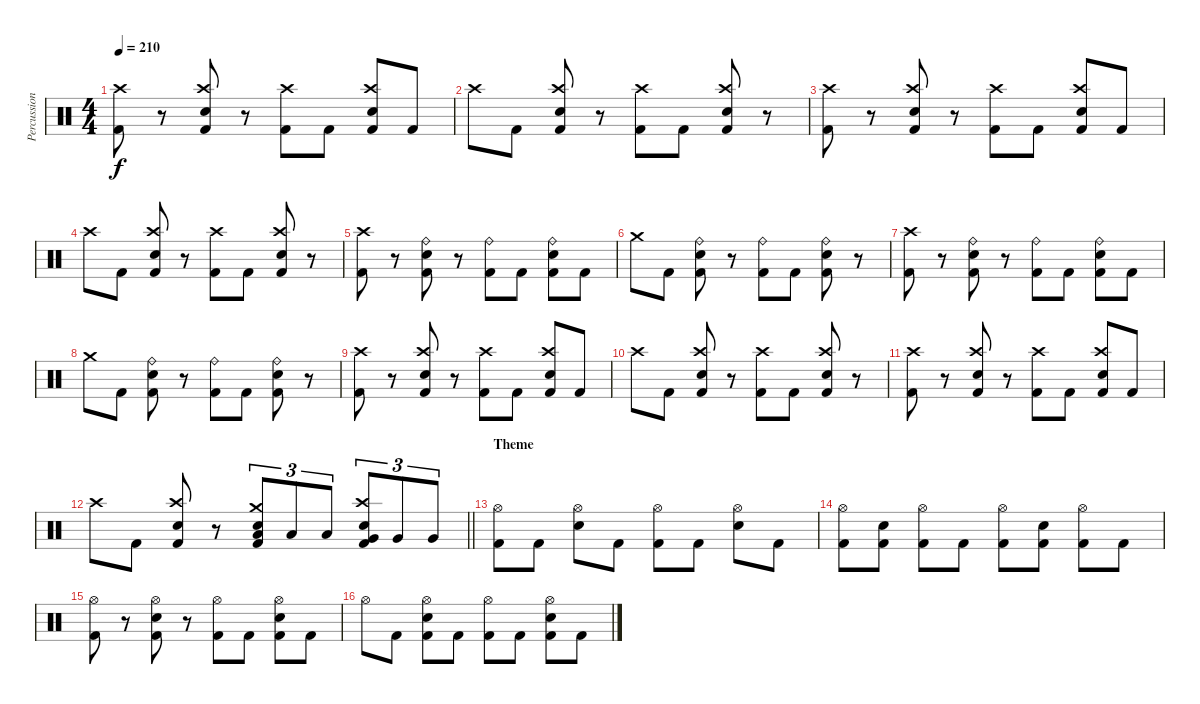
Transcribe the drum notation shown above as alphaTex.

\track ("Percussion" "Percussion") {instrument percussion}
\staff {score}
\articulation defaults
\ts (4 4)
\tempo 210
\clef neutral
\ks c
("Kick (hit) 2" "Crash high (hit)").8{dy f} r.8 ("Kick (hit) 2" "Electric Snare (hit)" "Crash high (hit)").8 r.8 ("Kick (hit) 2" "Crash high (hit)").8 "Kick (hit) 2".8 ("Kick (hit) 2" "Electric Snare (hit)" "Crash high (hit)").8 "Kick (hit) 2".8 |
"Crash high (hit)".8 "Kick (hit) 2".8 ("Kick (hit) 2" "Electric Snare (hit)" "Crash high (hit)").8 r.8 ("Kick (hit) 2" "Crash high (hit)").8 "Kick (hit) 2".8 ("Kick (hit) 2" "Electric Snare (hit)" "Crash high (hit)").8 r.8 |
("Kick (hit) 2" "Crash high (hit)").8 r.8 ("Kick (hit) 2" "Electric Snare (hit)" "Crash high (hit)").8 r.8 ("Kick (hit) 2" "Crash high (hit)").8 "Kick (hit) 2".8 ("Kick (hit) 2" "Electric Snare (hit)" "Crash high (hit)").8 "Kick (hit) 2".8 |
"Crash high (hit)".8 "Kick (hit) 2".8 ("Kick (hit) 2" "Electric Snare (hit)" "Crash high (hit)").8 r.8 ("Kick (hit) 2" "Crash high (hit)").8 "Kick (hit) 2".8 ("Kick (hit) 2" "Electric Snare (hit)" "Crash high (hit)").8 r.8 |
("Kick (hit) 2" "Crash high (hit)").8 r.8 ("Kick (hit) 2" "Electric Snare (hit)" "Ride (bell)").8 r.8 ("Kick (hit) 2" "Ride (bell)").8 "Kick (hit) 2".8 ("Kick (hit) 2" "Electric Snare (hit)" "Ride (bell)").8 "Kick (hit) 2".8 |
"Crash medium (hit)".8 "Kick (hit) 2".8 ("Kick (hit) 2" "Electric Snare (hit)" "Ride (bell)").8 r.8 ("Kick (hit) 2" "Ride (bell)").8 "Kick (hit) 2".8 ("Kick (hit) 2" "Electric Snare (hit)" "Ride (bell)").8 r.8 |
("Kick (hit) 2" "Crash high (hit)").8 r.8 ("Kick (hit) 2" "Electric Snare (hit)" "Ride (bell)").8 r.8 ("Kick (hit) 2" "Ride (bell)").8 "Kick (hit) 2".8 ("Kick (hit) 2" "Electric Snare (hit)" "Ride (bell)").8 "Kick (hit) 2".8 |
"Crash medium (hit)".8 "Kick (hit) 2".8 ("Kick (hit) 2" "Electric Snare (hit)" "Ride (bell)").8 r.8 ("Kick (hit) 2" "Ride (bell)").8 "Kick (hit) 2".8 ("Kick (hit) 2" "Electric Snare (hit)" "Ride (bell)").8 r.8 |
("Kick (hit) 2" "Crash high (hit)").8 r.8 ("Kick (hit) 2" "Electric Snare (hit)" "Crash high (hit)").8 r.8 ("Kick (hit) 2" "Crash high (hit)").8 "Kick (hit) 2".8 ("Kick (hit) 2" "Electric Snare (hit)" "Crash high (hit)").8 "Kick (hit) 2".8 |
"Crash high (hit)".8 "Kick (hit) 2".8 ("Kick (hit) 2" "Electric Snare (hit)" "Crash high (hit)").8 r.8 ("Kick (hit) 2" "Crash high (hit)").8 "Kick (hit) 2".8 ("Kick (hit) 2" "Electric Snare (hit)" "Crash high (hit)").8 r.8 |
("Kick (hit) 2" "Crash high (hit)").8 r.8 ("Kick (hit) 2" "Electric Snare (hit)" "Crash high (hit)").8 r.8 ("Kick (hit) 2" "Crash high (hit)").8 "Kick (hit) 2".8 ("Kick (hit) 2" "Electric Snare (hit)" "Crash high (hit)").8 "Kick (hit) 2".8 |
\barLineRight lightlight "Crash high (hit)".8 "Kick (hit) 2".8
("Kick (hit) 2" "Electric Snare (hit)" "Crash high (hit)").8 r.8 ("Kick (hit) 2" "Low Tom (hit)" "Crash medium (hit)" "Electric Snare (hit)").8{tu (3 2)} "Low Tom (hit)".8{tu (3 2)} "Low Tom (hit)".8{tu (3 2)} ("Kick (hit) 2" "Very Low Tom (hit)" "Crash high (hit)" "Electric Snare (hit)").8{tu (3 2)} "Very Low Tom (hit)".8{tu (3 2)} "Very Low Tom (hit)".8{tu (3 2)} |
\section ("" "Theme")
("Kick (hit) 2" "Hi-Hat (open)").8 "Kick (hit) 2".8 ("Electric Snare (hit)" "Hi-Hat (open)").8 "Kick (hit) 2".8 ("Kick (hit) 2" "Hi-Hat (open)").8 "Kick (hit) 2".8 ("Electric Snare (hit)" "Hi-Hat (open)").8 "Kick (hit) 2".8 |
("Kick (hit) 2" "Hi-Hat (open)").8 ("Kick (hit) 2" "Electric Snare (hit)").8 ("Kick (hit) 2" "Hi-Hat (open)").8 "Kick (hit) 2".8 ("Kick (hit) 2" "Hi-Hat (open)").8 ("Kick (hit) 2" "Electric Snare (hit)").8 ("Kick (hit) 2" "Hi-Hat (open)").8 "Kick (hit) 2".8 |
("Kick (hit) 2" "Hi-Hat (open)").8 r.8 ("Kick (hit) 2" "Electric Snare (hit)" "Hi-Hat (open)").8 r.8 ("Kick (hit) 2" "Hi-Hat (open)").8 "Kick (hit) 2".8 ("Kick (hit) 2" "Electric Snare (hit)" "Hi-Hat (open)").8 "Kick (hit) 2".8 |
"Hi-Hat (open)".8 "Kick (hit) 2".8 ("Kick (hit) 2" "Electric Snare (hit)" "Hi-Hat (open)").8 "Kick (hit) 2".8 ("Kick (hit) 2" "Hi-Hat (open)").8 "Kick (hit) 2".8 ("Kick (hit) 2" "Electric Snare (hit)" "Hi-Hat (open)").8 "Kick (hit) 2".8
